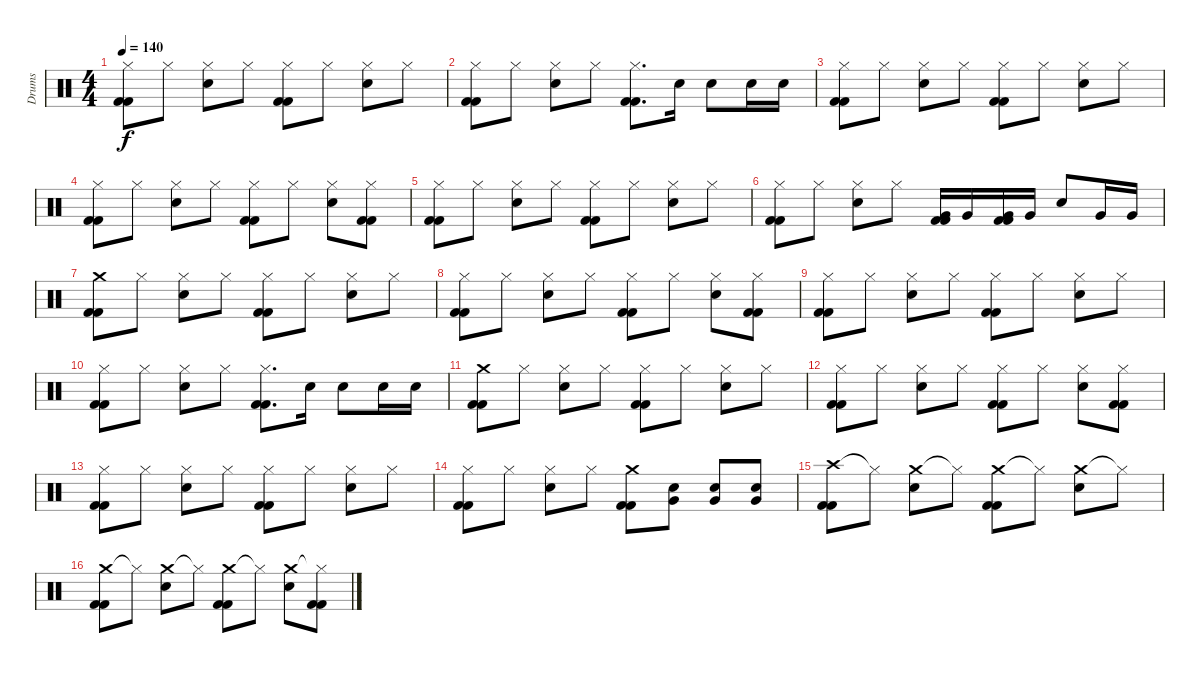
\track ("Drums" "Drums") {instrument percussion}
\staff {score}
\articulation defaults
\ts (4 4)
\tempo 140
\clef neutral
\ks c
("Hi-Hat (closed)" "Kick (hit) 2" "Kick (hit) 2").8{dy f} "Hi-Hat (closed)".8 ("Hi-Hat (closed)" "Electric Snare (hit)").8 "Hi-Hat (closed)".8 ("Hi-Hat (closed)" "Kick (hit) 2" "Kick (hit) 2").8 "Hi-Hat (closed)".8 ("Hi-Hat (closed)" "Electric Snare (hit)").8 "Hi-Hat (closed)".8 |
("Hi-Hat (closed)" "Kick (hit) 2" "Kick (hit) 2").8 "Hi-Hat (closed)".8 ("Hi-Hat (closed)" "Electric Snare (hit)").8 "Hi-Hat (closed)".8 ("Hi-Hat (closed)" "Kick (hit) 2" "Kick (hit) 2").8{d} "Electric Snare (hit)".16 "Electric Snare (hit)".8 "Electric Snare (hit)".16 "Electric Snare (hit)".16 |
("Hi-Hat (closed)" "Kick (hit) 2" "Kick (hit) 2").8 "Hi-Hat (closed)".8 ("Hi-Hat (closed)" "Electric Snare (hit)").8 "Hi-Hat (closed)".8 ("Hi-Hat (closed)" "Kick (hit) 2" "Kick (hit) 2").8 "Hi-Hat (closed)".8 ("Hi-Hat (closed)" "Electric Snare (hit)").8 "Hi-Hat (closed)".8 |
("Hi-Hat (closed)" "Kick (hit) 2" "Kick (hit) 2").8 "Hi-Hat (closed)".8 ("Hi-Hat (closed)" "Electric Snare (hit)").8 "Hi-Hat (closed)".8 ("Hi-Hat (closed)" "Kick (hit) 2" "Kick (hit) 2").8 "Hi-Hat (closed)".8 ("Hi-Hat (closed)" "Electric Snare (hit)").8 ("Hi-Hat (closed)" "Kick (hit) 2" "Kick (hit) 2").8 |
("Hi-Hat (closed)" "Kick (hit) 2" "Kick (hit) 2").8 "Hi-Hat (closed)".8 ("Hi-Hat (closed)" "Electric Snare (hit)").8 "Hi-Hat (closed)".8 ("Hi-Hat (closed)" "Kick (hit) 2" "Kick (hit) 2").8 "Hi-Hat (closed)".8 ("Hi-Hat (closed)" "Electric Snare (hit)").8 "Hi-Hat (closed)".8 |
("Hi-Hat (closed)" "Kick (hit) 2" "Kick (hit) 2").8 "Hi-Hat (closed)".8 ("Hi-Hat (closed)" "Electric Snare (hit)").8 "Hi-Hat (closed)".8 ("Very Low Tom (hit)" "Kick (hit) 2" "Kick (hit) 2").16 "Very Low Tom (hit)".16 ("Very Low Tom (hit)" "Kick (hit) 2" "Kick (hit) 2").16 "Very Low Tom (hit)".16 "Electric Snare (hit)".8 "Very Low Tom (hit)".16 "Very Low Tom (hit)".16 |
("Crash medium (hit)" "Kick (hit) 2" "Kick (hit) 2").8 "Hi-Hat (closed)".8 ("Hi-Hat (closed)" "Electric Snare (hit)").8 "Hi-Hat (closed)".8 ("Hi-Hat (closed)" "Kick (hit) 2" "Kick (hit) 2").8 "Hi-Hat (closed)".8 ("Hi-Hat (closed)" "Electric Snare (hit)").8 "Hi-Hat (closed)".8 |
("Hi-Hat (closed)" "Kick (hit) 2" "Kick (hit) 2").8 "Hi-Hat (closed)".8 ("Hi-Hat (closed)" "Electric Snare (hit)").8 "Hi-Hat (closed)".8 ("Hi-Hat (closed)" "Kick (hit) 2" "Kick (hit) 2").8 "Hi-Hat (closed)".8 ("Hi-Hat (closed)" "Electric Snare (hit)").8 ("Hi-Hat (closed)" "Kick (hit) 2" "Kick (hit) 2").8 |
("Hi-Hat (closed)" "Kick (hit) 2" "Kick (hit) 2").8 "Hi-Hat (closed)".8 ("Hi-Hat (closed)" "Electric Snare (hit)").8 "Hi-Hat (closed)".8 ("Hi-Hat (closed)" "Kick (hit) 2" "Kick (hit) 2").8 "Hi-Hat (closed)".8 ("Hi-Hat (closed)" "Electric Snare (hit)").8 "Hi-Hat (closed)".8 |
("Hi-Hat (closed)" "Kick (hit) 2" "Kick (hit) 2").8 "Hi-Hat (closed)".8 ("Hi-Hat (closed)" "Electric Snare (hit)").8 "Hi-Hat (closed)".8 ("Hi-Hat (closed)" "Kick (hit) 2" "Kick (hit) 2").8{d} "Electric Snare (hit)".16 "Electric Snare (hit)".8 "Electric Snare (hit)".16 "Electric Snare (hit)".16 |
("Crash medium (hit)" "Kick (hit) 2" "Kick (hit) 2").8 "Hi-Hat (closed)".8 ("Hi-Hat (closed)" "Electric Snare (hit)").8 "Hi-Hat (closed)".8 ("Hi-Hat (closed)" "Kick (hit) 2" "Kick (hit) 2").8 "Hi-Hat (closed)".8 ("Hi-Hat (closed)" "Electric Snare (hit)").8 "Hi-Hat (closed)".8 |
("Hi-Hat (closed)" "Kick (hit) 2" "Kick (hit) 2").8 "Hi-Hat (closed)".8 ("Hi-Hat (closed)" "Electric Snare (hit)").8 "Hi-Hat (closed)".8 ("Hi-Hat (closed)" "Kick (hit) 2" "Kick (hit) 2").8 "Hi-Hat (closed)".8 ("Hi-Hat (closed)" "Electric Snare (hit)").8 ("Hi-Hat (closed)" "Kick (hit) 2" "Kick (hit) 2").8 |
("Hi-Hat (closed)" "Kick (hit) 2" "Kick (hit) 2").8 "Hi-Hat (closed)".8 ("Hi-Hat (closed)" "Electric Snare (hit)").8 "Hi-Hat (closed)".8 ("Hi-Hat (closed)" "Kick (hit) 2" "Kick (hit) 2").8 "Hi-Hat (closed)".8 ("Hi-Hat (closed)" "Electric Snare (hit)").8 "Hi-Hat (closed)".8 |
("Hi-Hat (closed)" "Kick (hit) 2" "Kick (hit) 2").8 "Hi-Hat (closed)".8 ("Hi-Hat (closed)" "Electric Snare (hit)").8 "Hi-Hat (closed)".8 ("Crash medium (hit)" "Kick (hit) 2" "Kick (hit) 2").8 ("Very Low Tom (hit)" "Electric Snare (hit)").8 ("Very Low Tom (hit)" "Electric Snare (hit)").8 ("Very Low Tom (hit)" "Electric Snare (hit)").8 |
("Crash high (hit)" "Kick (hit) 2" "Kick (hit) 2").8 "Hi-Hat (closed)"{t}.8 ("Crash medium (hit)" "Electric Snare (hit)").8 "Hi-Hat (closed)"{t}.8 ("Crash medium (hit)" "Kick (hit) 2" "Kick (hit) 2").8 "Hi-Hat (closed)"{t}.8 ("Crash medium (hit)" "Electric Snare (hit)").8 "Hi-Hat (closed)"{t}.8 |
("Crash medium (hit)" "Kick (hit) 2" "Kick (hit) 2").8 "Hi-Hat (closed)"{t}.8 ("Crash medium (hit)" "Electric Snare (hit)").8 "Hi-Hat (closed)"{t}.8 ("Crash medium (hit)" "Kick (hit) 2" "Kick (hit) 2").8 "Hi-Hat (closed)"{t}.8 ("Crash medium (hit)" "Electric Snare (hit)").8 ("Hi-Hat (closed)"{t} "Kick (hit) 2" "Kick (hit) 2").8
